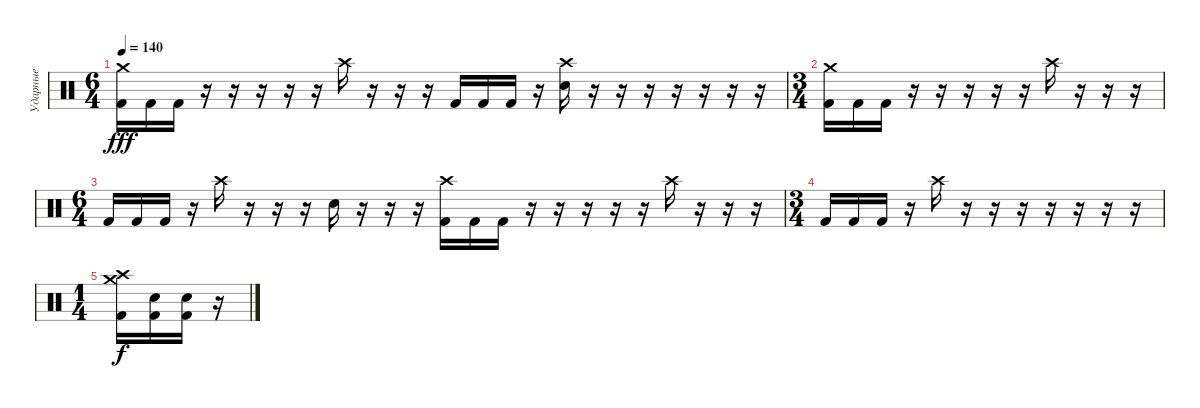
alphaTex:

\track ("Ударные" "Ударные") {instrument percussion}
\staff {score}
\articulation defaults
\ts (6 4)
\tempo 130
\tempo 140
\clef neutral
\ks c
("Crash medium (hit)" "Kick (hit) 2").16{dy fff} "Kick (hit) 2".16 "Kick (hit) 2".16 r.16 r.16 r.16 r.16 r.16 "Crash high (hit)".16 r.16 r.16 r.16 "Kick (hit) 2".16 "Kick (hit) 2".16 "Kick (hit) 2".16 r.16 ("Crash high (hit)" "Snare (hit) 2").16 r.16 r.16 r.16 r.16 r.16 r.16 r.16 |
\ts (3 4)
("Crash medium (hit)" "Kick (hit) 2").16 "Kick (hit) 2".16 "Kick (hit) 2".16 r.16 r.16 r.16 r.16 r.16 "Crash high (hit)".16 r.16 r.16 r.16 |
\ts (6 4)
"Kick (hit) 2".16 "Kick (hit) 2".16 "Kick (hit) 2".16 r.16 "Crash high (hit)".16 r.16 r.16 r.16 "Snare (hit) 2".16 r.16 r.16 r.16 ("Crash high (hit)" "Kick (hit) 2").16 "Kick (hit) 2".16 "Kick (hit) 2".16 r.16 r.16 r.16 r.16 r.16 "Crash high (hit)".16 r.16 r.16 r.16 |
\ts (3 4)
"Kick (hit) 2".16 "Kick (hit) 2".16 "Kick (hit) 2".16 r.16 "Crash high (hit)".16 r.16 r.16 r.16 r.16 r.16 r.16 r.16 |
\ts (1 4)
("Crash medium (hit)" "Crash high (hit)" "Kick (hit) 2").16{dy f} ("Snare (hit) 2" "Kick (hit) 2").16 ("Snare (hit) 2" "Kick (hit) 2").16 r.16
